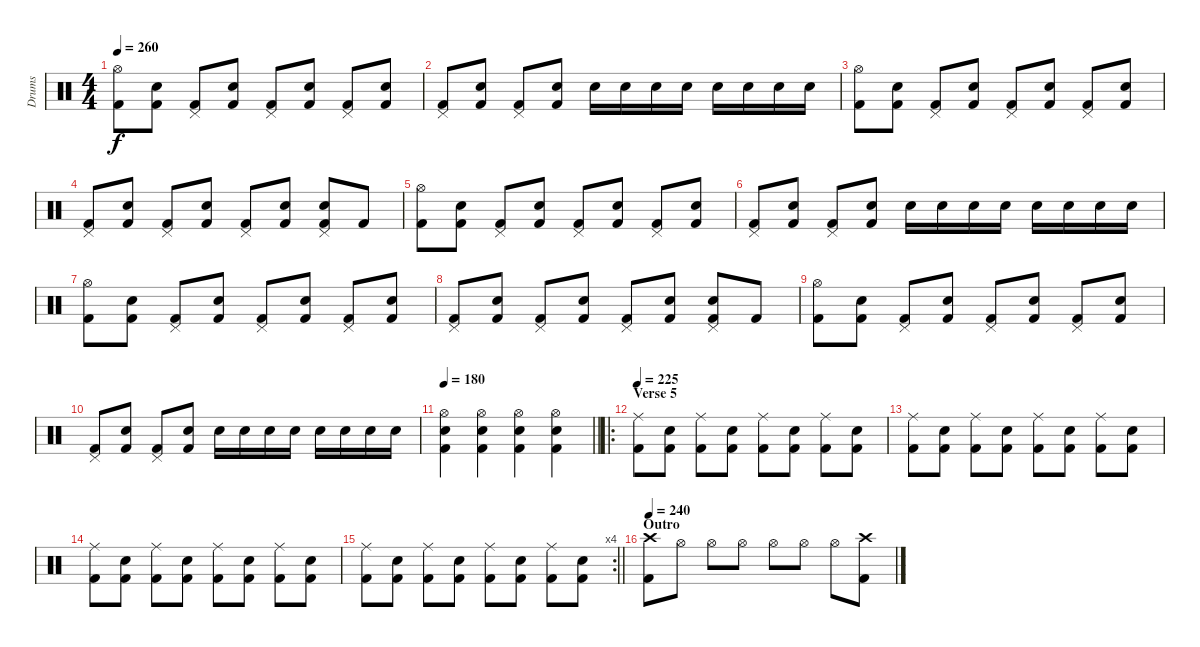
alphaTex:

\track ("Drums" "Drums") {instrument percussion}
\staff {score}
\articulation defaults
\ts (4 4)
\tempo 260
\clef neutral
\ks c
("Hi-Hat (open)" "Kick (hit) 2").8{dy f} ("Snare (hit) 2" "Kick (hit) 2").8 ("Pedal Hi-Hat (hit)" "Kick (hit) 2").8 ("Snare (hit) 2" "Kick (hit) 2").8 ("Pedal Hi-Hat (hit)" "Kick (hit) 2").8 ("Snare (hit) 2" "Kick (hit) 2").8 ("Pedal Hi-Hat (hit)" "Kick (hit) 2").8 ("Snare (hit) 2" "Kick (hit) 2").8 |
("Pedal Hi-Hat (hit)" "Kick (hit) 2").8 ("Snare (hit) 2" "Kick (hit) 2").8 ("Pedal Hi-Hat (hit)" "Kick (hit) 2").8 ("Snare (hit) 2" "Kick (hit) 2").8 "Snare (hit) 2".16 "Snare (hit) 2".16 "Snare (hit) 2".16 "Snare (hit) 2".16 "Snare (hit) 2".16 "Snare (hit) 2".16 "Snare (hit) 2".16 "Snare (hit) 2".16 |
("Hi-Hat (open)" "Kick (hit) 2").8 ("Snare (hit) 2" "Kick (hit) 2").8 ("Pedal Hi-Hat (hit)" "Kick (hit) 2").8 ("Snare (hit) 2" "Kick (hit) 2").8 ("Pedal Hi-Hat (hit)" "Kick (hit) 2").8 ("Snare (hit) 2" "Kick (hit) 2").8 ("Pedal Hi-Hat (hit)" "Kick (hit) 2").8 ("Snare (hit) 2" "Kick (hit) 2").8 |
("Pedal Hi-Hat (hit)" "Kick (hit) 2").8 ("Snare (hit) 2" "Kick (hit) 2").8 ("Pedal Hi-Hat (hit)" "Kick (hit) 2").8 ("Snare (hit) 2" "Kick (hit) 2").8 ("Pedal Hi-Hat (hit)" "Kick (hit) 2").8 ("Snare (hit) 2" "Kick (hit) 2").8 ("Pedal Hi-Hat (hit)" "Snare (hit) 2" "Kick (hit) 2").8 "Kick (hit) 2".8 |
("Hi-Hat (open)" "Kick (hit) 2").8 ("Snare (hit) 2" "Kick (hit) 2").8 ("Pedal Hi-Hat (hit)" "Kick (hit) 2").8 ("Snare (hit) 2" "Kick (hit) 2").8 ("Pedal Hi-Hat (hit)" "Kick (hit) 2").8 ("Snare (hit) 2" "Kick (hit) 2").8 ("Pedal Hi-Hat (hit)" "Kick (hit) 2").8 ("Snare (hit) 2" "Kick (hit) 2").8 |
("Pedal Hi-Hat (hit)" "Kick (hit) 2").8 ("Snare (hit) 2" "Kick (hit) 2").8 ("Pedal Hi-Hat (hit)" "Kick (hit) 2").8 ("Snare (hit) 2" "Kick (hit) 2").8 "Snare (hit) 2".16 "Snare (hit) 2".16 "Snare (hit) 2".16 "Snare (hit) 2".16 "Snare (hit) 2".16 "Snare (hit) 2".16 "Snare (hit) 2".16 "Snare (hit) 2".16 |
("Hi-Hat (open)" "Kick (hit) 2").8 ("Snare (hit) 2" "Kick (hit) 2").8 ("Pedal Hi-Hat (hit)" "Kick (hit) 2").8 ("Snare (hit) 2" "Kick (hit) 2").8 ("Pedal Hi-Hat (hit)" "Kick (hit) 2").8 ("Snare (hit) 2" "Kick (hit) 2").8 ("Pedal Hi-Hat (hit)" "Kick (hit) 2").8 ("Snare (hit) 2" "Kick (hit) 2").8 |
("Pedal Hi-Hat (hit)" "Kick (hit) 2").8 ("Snare (hit) 2" "Kick (hit) 2").8 ("Pedal Hi-Hat (hit)" "Kick (hit) 2").8 ("Snare (hit) 2" "Kick (hit) 2").8 ("Pedal Hi-Hat (hit)" "Kick (hit) 2").8 ("Snare (hit) 2" "Kick (hit) 2").8 ("Pedal Hi-Hat (hit)" "Snare (hit) 2" "Kick (hit) 2").8 "Kick (hit) 2".8 |
("Hi-Hat (open)" "Kick (hit) 2").8 ("Snare (hit) 2" "Kick (hit) 2").8 ("Pedal Hi-Hat (hit)" "Kick (hit) 2").8 ("Snare (hit) 2" "Kick (hit) 2").8 ("Pedal Hi-Hat (hit)" "Kick (hit) 2").8 ("Snare (hit) 2" "Kick (hit) 2").8 ("Pedal Hi-Hat (hit)" "Kick (hit) 2").8 ("Snare (hit) 2" "Kick (hit) 2").8 |
("Pedal Hi-Hat (hit)" "Kick (hit) 2").8 ("Snare (hit) 2" "Kick (hit) 2").8 ("Pedal Hi-Hat (hit)" "Kick (hit) 2").8 ("Snare (hit) 2" "Kick (hit) 2").8 "Snare (hit) 2".16 "Snare (hit) 2".16 "Snare (hit) 2".16 "Snare (hit) 2".16 "Snare (hit) 2".16 "Snare (hit) 2".16 "Snare (hit) 2".16 "Snare (hit) 2".16 |
\tempo 180
\barLineRight lightlight
("Hi-Hat (open)" "Snare (hit) 2" "Kick (hit) 2").4 ("Hi-Hat (open)" "Snare (hit) 2" "Kick (hit) 2").4 ("Hi-Hat (open)" "Snare (hit) 2" "Kick (hit) 2").4 ("Hi-Hat (open)" "Snare (hit) 2" "Kick (hit) 2").4 |
\ro
\section ("" "Verse 5")
\tempo 225
("Ride (middle)" "Kick (hit) 2").8 ("Snare (hit) 2" "Kick (hit) 2").8 ("Ride (middle)" "Kick (hit) 2").8 ("Snare (hit) 2" "Kick (hit) 2").8 ("Ride (middle)" "Kick (hit) 2").8 ("Snare (hit) 2" "Kick (hit) 2").8 ("Ride (middle)" "Kick (hit) 2").8 ("Snare (hit) 2" "Kick (hit) 2").8 |
("Ride (middle)" "Kick (hit) 2").8 ("Snare (hit) 2" "Kick (hit) 2").8 ("Ride (middle)" "Kick (hit) 2").8 ("Snare (hit) 2" "Kick (hit) 2").8 ("Ride (middle)" "Kick (hit) 2").8 ("Snare (hit) 2" "Kick (hit) 2").8 ("Ride (middle)" "Kick (hit) 2").8 ("Snare (hit) 2" "Kick (hit) 2").8 |
("Ride (middle)" "Kick (hit) 2").8 ("Snare (hit) 2" "Kick (hit) 2").8 ("Ride (middle)" "Kick (hit) 2").8 ("Snare (hit) 2" "Kick (hit) 2").8 ("Ride (middle)" "Kick (hit) 2").8 ("Snare (hit) 2" "Kick (hit) 2").8 ("Ride (middle)" "Kick (hit) 2").8 ("Snare (hit) 2" "Kick (hit) 2").8 |
\rc 4
\barLineRight lightlight
("Ride (middle)" "Kick (hit) 2").8 ("Snare (hit) 2" "Kick (hit) 2").8 ("Ride (middle)" "Kick (hit) 2").8 ("Snare (hit) 2" "Kick (hit) 2").8 ("Ride (middle)" "Kick (hit) 2").8 ("Snare (hit) 2" "Kick (hit) 2").8 ("Ride (middle)" "Kick (hit) 2").8 ("Snare (hit) 2" "Kick (hit) 2").8 |
\section ("" "Outro")
\tempo 240
("Crash high (hit)" "Kick (hit) 2").8 "Hi-Hat (open)".8 "Hi-Hat (open)".8 "Hi-Hat (open)".8 "Hi-Hat (open)".8 "Hi-Hat (open)".8 "Hi-Hat (open)".8 ("Crash high (hit)" "Kick (hit) 2").8
